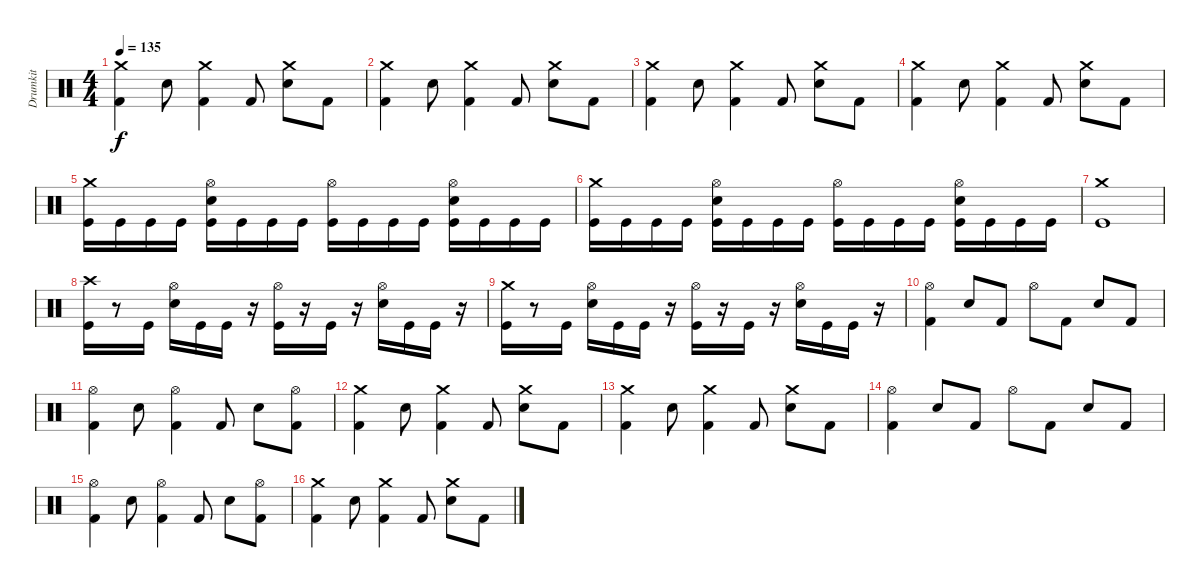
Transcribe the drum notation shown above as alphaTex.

\track ("Drumkit" "Drumkit") {instrument percussion}
\staff {score}
\articulation defaults
\ts (4 4)
\tempo 135
\clef neutral
\ks c
("Crash medium (hit)" "Kick (hit) 2").4{dy f} "Snare (hit) 2".8 ("Crash medium (hit)" "Kick (hit) 2").4 "Kick (hit) 2".8 ("Crash medium (hit)" "Snare (hit) 2").8 "Kick (hit) 2".8 |
("Crash medium (hit)" "Kick (hit) 2").4 "Snare (hit) 2".8 ("Crash medium (hit)" "Kick (hit) 2").4 "Kick (hit) 2".8 ("Crash medium (hit)" "Snare (hit) 2").8 "Kick (hit) 2".8 |
("Crash medium (hit)" "Kick (hit) 2").4 "Snare (hit) 2".8 ("Crash medium (hit)" "Kick (hit) 2").4 "Kick (hit) 2".8 ("Crash medium (hit)" "Snare (hit) 2").8 "Kick (hit) 2".8 |
("Crash medium (hit)" "Kick (hit) 2").4 "Snare (hit) 2".8 ("Crash medium (hit)" "Kick (hit) 2").4 "Kick (hit) 2".8 ("Crash medium (hit)" "Snare (hit) 2").8 "Kick (hit) 2".8 |
("Crash medium (hit)" "Kick (hit)").16 "Kick (hit)".16 "Kick (hit)".16 "Kick (hit)".16 ("Hi-Hat (open)" "Snare (hit) 2" "Kick (hit)").16 "Kick (hit)".16 "Kick (hit)".16 "Kick (hit)".16 ("Hi-Hat (open)" "Kick (hit)").16 "Kick (hit)".16 "Kick (hit)".16 "Kick (hit)".16 ("Hi-Hat (open)" "Snare (hit) 2" "Kick (hit)").16 "Kick (hit)".16 "Kick (hit)".16 "Kick (hit)".16 |
("Crash medium (hit)" "Kick (hit)").16 "Kick (hit)".16 "Kick (hit)".16 "Kick (hit)".16 ("Hi-Hat (open)" "Snare (hit) 2" "Kick (hit)").16 "Kick (hit)".16 "Kick (hit)".16 "Kick (hit)".16 ("Hi-Hat (open)" "Kick (hit)").16 "Kick (hit)".16 "Kick (hit)".16 "Kick (hit)".16 ("Hi-Hat (open)" "Snare (hit) 2" "Kick (hit)").16 "Kick (hit)".16 "Kick (hit)".16 "Kick (hit)".16 |
("Crash medium (hit)" "Kick (hit)").1 |
("Crash high (hit)" "Kick (hit)").16 r.8 "Kick (hit)".16 ("Hi-Hat (open)" "Snare (hit) 2").16 "Kick (hit)".16 "Kick (hit)".16 r.16 ("Hi-Hat (open)" "Kick (hit)").16 r.16 "Kick (hit)".16 r.16 ("Hi-Hat (open)" "Snare (hit) 2").16 "Kick (hit)".16 "Kick (hit)".16 r.16 |
("Crash medium (hit)" "Kick (hit)").16 r.8 "Kick (hit)".16 ("Hi-Hat (open)" "Snare (hit) 2").16 "Kick (hit)".16 "Kick (hit)".16 r.16 ("Hi-Hat (open)" "Kick (hit)").16 r.16 "Kick (hit)".16 r.16 ("Hi-Hat (open)" "Snare (hit) 2").16 "Kick (hit)".16 "Kick (hit)".16 r.16 |
("Hi-Hat (open)" "Kick (hit) 2").4 "Snare (hit) 2".8 "Kick (hit) 2".8 "Hi-Hat (open)".8 "Kick (hit) 2".8 "Snare (hit) 2".8 "Kick (hit) 2".8 |
("Hi-Hat (open)" "Kick (hit) 2").4 "Snare (hit) 2".8 ("Hi-Hat (open)" "Kick (hit) 2").4 "Kick (hit) 2".8 "Snare (hit) 2".8 ("Hi-Hat (open)" "Kick (hit) 2").8 |
("Crash medium (hit)" "Kick (hit) 2").4 "Snare (hit) 2".8 ("Crash medium (hit)" "Kick (hit) 2").4 "Kick (hit) 2".8 ("Crash medium (hit)" "Snare (hit) 2").8 "Kick (hit) 2".8 |
("Crash medium (hit)" "Kick (hit) 2").4 "Snare (hit) 2".8 ("Crash medium (hit)" "Kick (hit) 2").4 "Kick (hit) 2".8 ("Crash medium (hit)" "Snare (hit) 2").8 "Kick (hit) 2".8 |
("Hi-Hat (open)" "Kick (hit) 2").4 "Snare (hit) 2".8 "Kick (hit) 2".8 "Hi-Hat (open)".8 "Kick (hit) 2".8 "Snare (hit) 2".8 "Kick (hit) 2".8 |
("Hi-Hat (open)" "Kick (hit) 2").4 "Snare (hit) 2".8 ("Hi-Hat (open)" "Kick (hit) 2").4 "Kick (hit) 2".8 "Snare (hit) 2".8 ("Hi-Hat (open)" "Kick (hit) 2").8 |
("Crash medium (hit)" "Kick (hit) 2").4 "Snare (hit) 2".8 ("Crash medium (hit)" "Kick (hit) 2").4 "Kick (hit) 2".8 ("Crash medium (hit)" "Snare (hit) 2").8 "Kick (hit) 2".8
